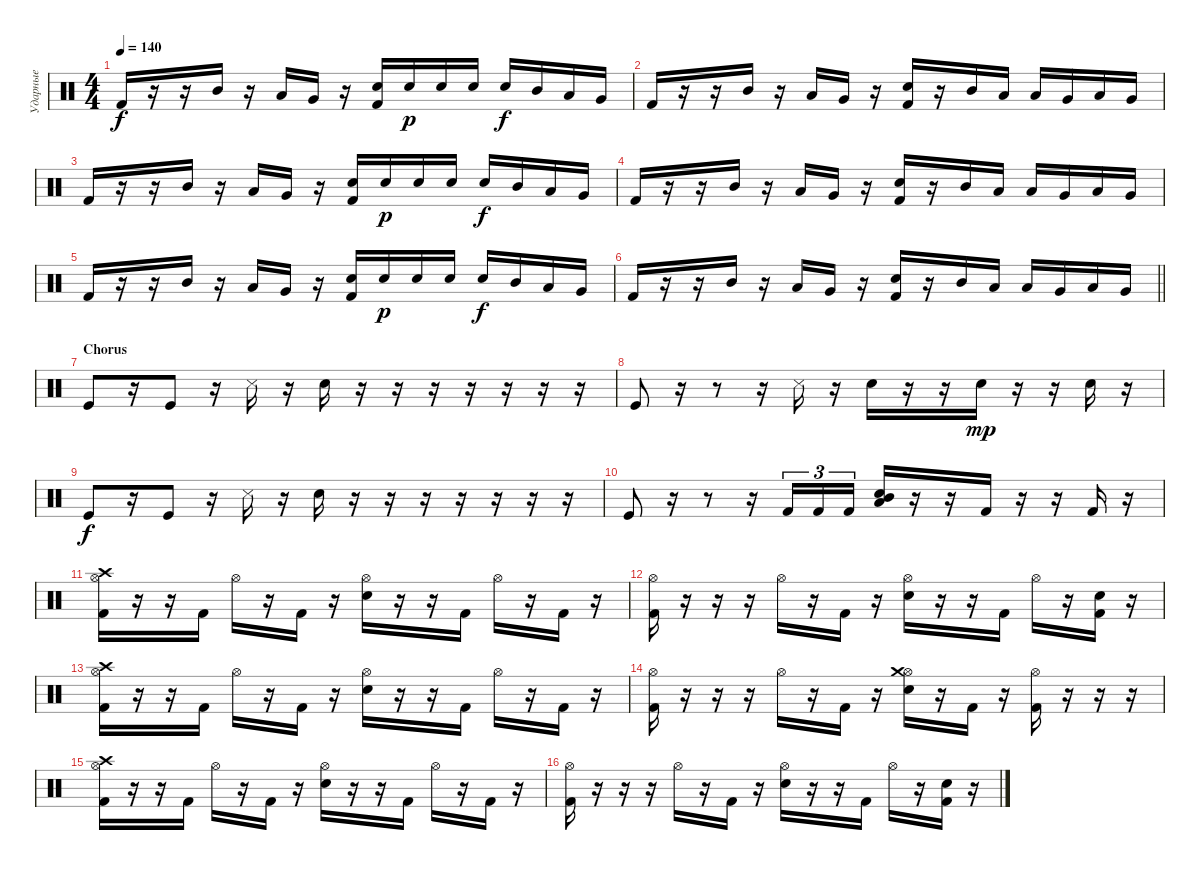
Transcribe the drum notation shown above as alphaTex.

\track ("Ударные" "Ударные") {instrument percussion}
\staff {score}
\articulation defaults
\ts (4 4)
\tempo 140
\clef neutral
\ks c "Kick (hit) 2".16{dy f}
r.16 r.16 "Mid Tom (hit)".16 r.16 "Low Tom (hit)".16 "Very Low Tom (hit)".16 r.16 ("Snare (hit) 2" "Kick (hit) 2").16 "Snare (hit) 2".16{dy p} "Snare (hit) 2".16 "Snare (hit) 2".16 "Snare (hit) 2".16{dy f} "Mid Tom (hit)".16 "Low Tom (hit)".16 "Very Low Tom (hit)".16 |
"Kick (hit) 2".16 r.16 r.16 "Mid Tom (hit)".16 r.16 "Low Tom (hit)".16 "Very Low Tom (hit)".16 r.16 ("Snare (hit) 2" "Kick (hit) 2").16 r.16 "Mid Tom (hit)".16 "Low Tom (hit)".16 "Low Tom (hit)".16 "Very Low Tom (hit)".16 "Low Floor Tom (hit)".16 "Very Low Tom (hit)".16 |
"Kick (hit) 2".16 r.16 r.16 "Mid Tom (hit)".16 r.16 "Low Tom (hit)".16 "Very Low Tom (hit)".16 r.16 ("Snare (hit) 2" "Kick (hit) 2").16 "Snare (hit) 2".16{dy p} "Snare (hit) 2".16 "Snare (hit) 2".16 "Snare (hit) 2".16{dy f} "Mid Tom (hit)".16 "Low Tom (hit)".16 "Very Low Tom (hit)".16 |
"Kick (hit) 2".16 r.16 r.16 "Mid Tom (hit)".16 r.16 "Low Tom (hit)".16 "Very Low Tom (hit)".16 r.16 ("Snare (hit) 2" "Kick (hit) 2").16 r.16 "Mid Tom (hit)".16 "Low Tom (hit)".16 "Low Tom (hit)".16 "Very Low Tom (hit)".16 "Low Floor Tom (hit)".16 "Very Low Tom (hit)".16 |
"Kick (hit) 2".16 r.16 r.16 "Mid Tom (hit)".16 r.16 "Low Tom (hit)".16 "Very Low Tom (hit)".16 r.16 ("Snare (hit) 2" "Kick (hit) 2").16 "Snare (hit) 2".16{dy p} "Snare (hit) 2".16 "Snare (hit) 2".16 "Snare (hit) 2".16{dy f} "Mid Tom (hit)".16 "Low Tom (hit)".16 "Very Low Tom (hit)".16 |
\barLineRight lightlight "Kick (hit) 2".16
r.16 r.16 "Mid Tom (hit)".16 r.16 "Low Tom (hit)".16 "Very Low Tom (hit)".16 r.16 ("Snare (hit) 2" "Kick (hit) 2").16 r.16 "Mid Tom (hit)".16 "Low Tom (hit)".16 "Low Tom (hit)".16 "Very Low Tom (hit)".16 "Low Floor Tom (hit)".16 "Very Low Tom (hit)".16 |
\section ("" "Chorus")
"Kick (hit)".8 r.16 "Kick (hit)".8 r.16 "Metronome (hit)".16 r.16 "Electric Snare (hit)".16 r.16 r.16 r.16 r.16 r.16 r.16 r.16 |
"Kick (hit)".8 r.16 r.8 r.16 "Metronome (hit)".16 r.16 "Electric Snare (hit)".16 r.16 r.16 "Electric Snare (hit)".16{dy mp} r.16 r.16 "Electric Snare (hit)".16 r.16 |
"Kick (hit)".8{dy f} r.16 "Kick (hit)".8 r.16 "Metronome (hit)".16 r.16 "Electric Snare (hit)".16 r.16 r.16 r.16 r.16 r.16 r.16 r.16 |
"Kick (hit)".8 r.16 r.8 r.16 "Kick (hit) 2".16{tu (3 2)} "Kick (hit) 2".16{tu (3 2)} "Kick (hit) 2".16{tu (3 2)} ("Low Tom (hit)" "Mid Tom (hit)" "Snare (hit) 2").16 r.16 r.16 "Kick (hit) 2".16 r.16 r.16 "Kick (hit) 2".16 r.16 |
("Hi-Hat (open)" "Crash high (hit)" "Kick (hit) 2").16 r.16 r.16 "Kick (hit) 2".16 "Hi-Hat (open)".16 r.16 "Kick (hit) 2".16 r.16 ("Hi-Hat (open)" "Snare (hit) 2").16 r.16 r.16 "Kick (hit) 2".16 "Hi-Hat (open)".16 r.16 "Kick (hit) 2".16 r.16 |
("Hi-Hat (open)" "Kick (hit) 2").16 r.16 r.16 r.16 "Hi-Hat (open)".16 r.16 "Kick (hit) 2".16 r.16 ("Hi-Hat (open)" "Snare (hit) 2").16 r.16 r.16 "Kick (hit) 2".16 "Hi-Hat (open)".16 r.16 ("Snare (hit) 2" "Kick (hit) 2").16 r.16 |
("Hi-Hat (open)" "Crash high (hit)" "Kick (hit) 2").16 r.16 r.16 "Kick (hit) 2".16 "Hi-Hat (open)".16 r.16 "Kick (hit) 2".16 r.16 ("Hi-Hat (open)" "Snare (hit) 2").16 r.16 r.16 "Kick (hit) 2".16 "Hi-Hat (open)".16 r.16 "Kick (hit) 2".16 r.16 |
("Hi-Hat (open)" "Kick (hit) 2").16 r.16 r.16 r.16 "Hi-Hat (open)".16 r.16 "Kick (hit) 2".16 r.16 ("Hi-Hat (open)" "Crash medium (hit)" "Snare (hit) 2").16 r.16 "Kick (hit) 2".16 r.16 ("Hi-Hat (open)" "Kick (hit) 2").16 r.16 r.16 r.16 |
("Hi-Hat (open)" "Crash high (hit)" "Kick (hit) 2").16 r.16 r.16 "Kick (hit) 2".16 "Hi-Hat (open)".16 r.16 "Kick (hit) 2".16 r.16 ("Hi-Hat (open)" "Snare (hit) 2").16 r.16 r.16 "Kick (hit) 2".16 "Hi-Hat (open)".16 r.16 "Kick (hit) 2".16 r.16 |
("Hi-Hat (open)" "Kick (hit) 2").16 r.16 r.16 r.16 "Hi-Hat (open)".16 r.16 "Kick (hit) 2".16 r.16 ("Hi-Hat (open)" "Snare (hit) 2").16 r.16 r.16 "Kick (hit) 2".16 "Hi-Hat (open)".16 r.16 ("Snare (hit) 2" "Kick (hit) 2").16 r.16
